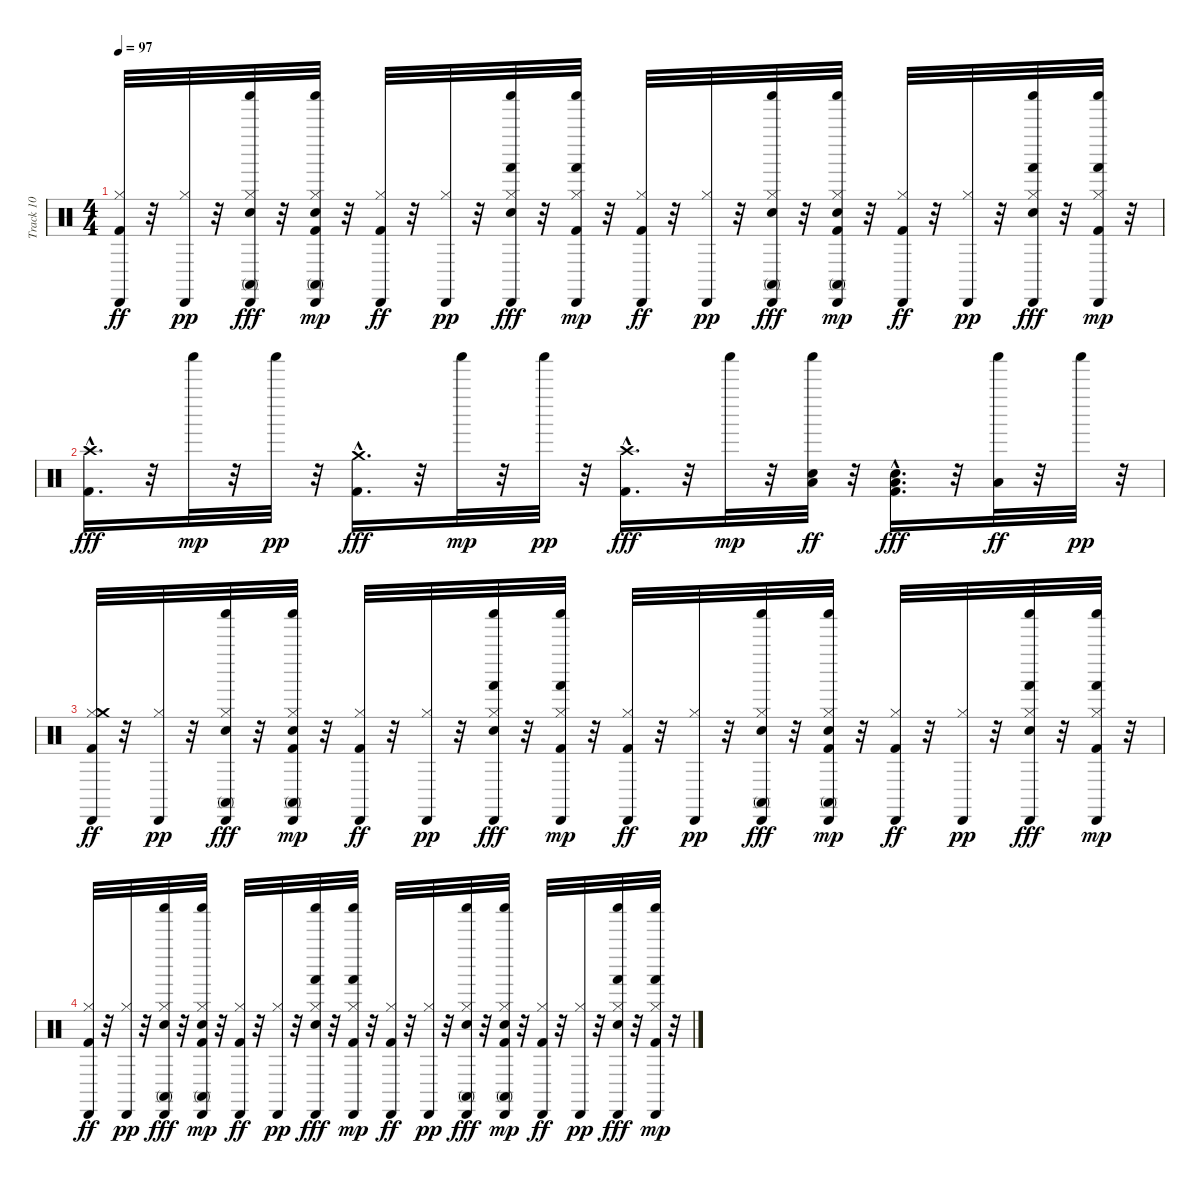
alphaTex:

\track ("Track 10" "Track 10") {instrument percussion}
\staff {score}
\articulation defaults
\ts (4 4)
\tempo 97
\clef neutral
\ks c
("Hi-Hat (closed)" "Cabasa (hit)" "Kick (hit) 2").32{dy ff} r.32 ("Hi-Hat (closed)" "Cabasa (hit)").32{dy pp} r.32 ("Hi-Hat (closed)" "Shaker (hit)" "Conga high (mute)" "Cabasa (hit)" "Snare (hit) 2").32{dy fff} r.32 ("Hi-Hat (closed)" "Shaker (hit)" "Conga high (mute)" "Cabasa (hit)" "Kick (hit) 2" "Snare (hit) 2").32{dy mp} r.32 ("Hi-Hat (closed)" "Cabasa (hit)" "Kick (hit) 2").32{dy ff} r.32 ("Hi-Hat (closed)" "Cabasa (hit)").32{dy pp} r.32 ("Hi-Hat (closed)" "Shaker (hit)" "Hand (hit)" "Cabasa (hit)" "Snare (hit) 2").32{dy fff} r.32 ("Hi-Hat (closed)" "Shaker (hit)" "Hand (hit)" "Cabasa (hit)" "Kick (hit) 2").32{dy mp} r.32 ("Hi-Hat (closed)" "Cabasa (hit)" "Kick (hit) 2").32{dy ff} r.32 ("Hi-Hat (closed)" "Cabasa (hit)").32{dy pp} r.32 ("Hi-Hat (closed)" "Shaker (hit)" "Conga high (mute)" "Cabasa (hit)" "Snare (hit) 2").32{dy fff} r.32 ("Hi-Hat (closed)" "Shaker (hit)" "Conga high (mute)" "Cabasa (hit)" "Snare (hit) 2" "Kick (hit) 2").32{dy mp} r.32 ("Hi-Hat (closed)" "Cabasa (hit)" "Kick (hit) 2").32{dy ff} r.32 ("Hi-Hat (closed)" "Cabasa (hit)").32{dy pp} r.32 ("Hi-Hat (closed)" "Shaker (hit)" "Hand (hit)" "Cabasa (hit)" "Snare (hit) 2").32{dy fff} r.32 ("Hi-Hat (closed)" "Shaker (hit)" "Hand (hit)" "Cabasa (hit)" "Kick (hit) 2").32{dy mp} r.32 |
("Crash high (hit)" "Kick (hit) 2"{hac}).16{d dy fff} r.32 "Shaker (hit)".32{dy mp} r.32 "Shaker (hit)".32{dy pp} r.32 ("Crash medium (hit)" "Kick (hit) 2"{hac}).16{d dy fff} r.32 "Shaker (hit)".32{dy mp} r.32 "Shaker (hit)".32{dy pp} r.32 ("Crash high (hit)" "Kick (hit) 2"{hac}).16{d dy fff} r.32 "Shaker (hit)".32{dy mp} r.32 ("Shaker (hit)" "Low Tom (hit)" "Electric Snare (hit)").32{dy ff} r.32 ("Low Tom (hit)" "Electric Snare (hit)" "Kick (hit) 2"{hac}).16{d dy fff} r.32 ("Shaker (hit)" "Low Floor Tom (hit)").32{dy ff} r.32 "Shaker (hit)".32{dy pp} r.32 |
("Hi-Hat (closed)" "Cabasa (hit)" "Crash medium (hit)" "Kick (hit) 2").32{dy ff} r.32 ("Hi-Hat (closed)" "Cabasa (hit)").32{dy pp} r.32 ("Hi-Hat (closed)" "Shaker (hit)" "Conga high (mute)" "Cabasa (hit)" "Snare (hit) 2").32{dy fff} r.32 ("Hi-Hat (closed)" "Shaker (hit)" "Conga high (mute)" "Cabasa (hit)" "Kick (hit) 2" "Snare (hit) 2").32{dy mp} r.32 ("Hi-Hat (closed)" "Cabasa (hit)" "Kick (hit) 2").32{dy ff} r.32 ("Hi-Hat (closed)" "Cabasa (hit)").32{dy pp} r.32 ("Hi-Hat (closed)" "Shaker (hit)" "Hand (hit)" "Cabasa (hit)" "Snare (hit) 2").32{dy fff} r.32 ("Hi-Hat (closed)" "Shaker (hit)" "Hand (hit)" "Cabasa (hit)" "Kick (hit) 2").32{dy mp} r.32 ("Hi-Hat (closed)" "Cabasa (hit)" "Kick (hit) 2").32{dy ff} r.32 ("Hi-Hat (closed)" "Cabasa (hit)").32{dy pp} r.32 ("Hi-Hat (closed)" "Shaker (hit)" "Conga high (mute)" "Cabasa (hit)" "Snare (hit) 2").32{dy fff} r.32 ("Hi-Hat (closed)" "Shaker (hit)" "Conga high (mute)" "Cabasa (hit)" "Kick (hit) 2" "Snare (hit) 2").32{dy mp} r.32 ("Hi-Hat (closed)" "Cabasa (hit)" "Kick (hit) 2").32{dy ff} r.32 ("Hi-Hat (closed)" "Cabasa (hit)").32{dy pp} r.32 ("Hi-Hat (closed)" "Shaker (hit)" "Hand (hit)" "Cabasa (hit)" "Snare (hit) 2").32{dy fff} r.32 ("Hi-Hat (closed)" "Shaker (hit)" "Hand (hit)" "Cabasa (hit)" "Kick (hit) 2").32{dy mp} r.32 |
("Hi-Hat (closed)" "Cabasa (hit)" "Kick (hit) 2").32{dy ff} r.32 ("Hi-Hat (closed)" "Cabasa (hit)").32{dy pp} r.32 ("Hi-Hat (closed)" "Shaker (hit)" "Conga high (mute)" "Cabasa (hit)" "Snare (hit) 2").32{dy fff} r.32 ("Hi-Hat (closed)" "Shaker (hit)" "Conga high (mute)" "Cabasa (hit)" "Snare (hit) 2" "Kick (hit) 2").32{dy mp} r.32 ("Hi-Hat (closed)" "Cabasa (hit)" "Kick (hit) 2").32{dy ff} r.32 ("Hi-Hat (closed)" "Cabasa (hit)").32{dy pp} r.32 ("Hi-Hat (closed)" "Shaker (hit)" "Hand (hit)" "Cabasa (hit)" "Snare (hit) 2").32{dy fff} r.32 ("Hi-Hat (closed)" "Shaker (hit)" "Hand (hit)" "Cabasa (hit)" "Kick (hit) 2").32{dy mp} r.32 ("Hi-Hat (closed)" "Cabasa (hit)" "Kick (hit) 2").32{dy ff} r.32 ("Hi-Hat (closed)" "Cabasa (hit)").32{dy pp} r.32 ("Hi-Hat (closed)" "Shaker (hit)" "Conga high (mute)" "Cabasa (hit)" "Snare (hit) 2").32{dy fff} r.32 ("Hi-Hat (closed)" "Shaker (hit)" "Conga high (mute)" "Cabasa (hit)" "Kick (hit) 2" "Snare (hit) 2").32{dy mp} r.32 ("Hi-Hat (closed)" "Cabasa (hit)" "Kick (hit) 2").32{dy ff} r.32 ("Hi-Hat (closed)" "Cabasa (hit)").32{dy pp} r.32 ("Hi-Hat (closed)" "Shaker (hit)" "Hand (hit)" "Cabasa (hit)" "Snare (hit) 2").32{dy fff} r.32 ("Hi-Hat (closed)" "Shaker (hit)" "Hand (hit)" "Cabasa (hit)" "Kick (hit) 2").32{dy mp} r.32
